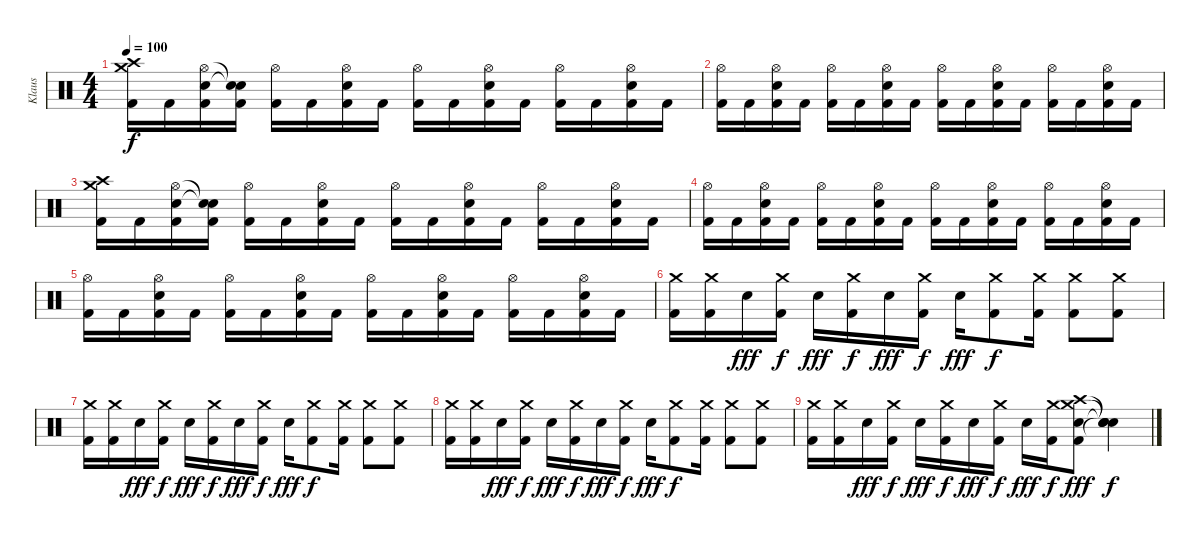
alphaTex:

\track ("Klaus" "Klaus") {instrument percussion}
\staff {score}
\articulation defaults
\ts (4 4)
\tempo 100
\clef neutral
\ks c
("Crash high (hit)" "Crash medium (hit)" "Kick (hit) 2").16{dy f} "Kick (hit) 2".16 ("Hi-Hat (open)" "Electric Snare (hit)" "Kick (hit) 2").16 ("Snare (hit)"{t} "Snare (hit)"{t} "Kick (hit) 2").16 ("Hi-Hat (open)" "Kick (hit) 2").16 "Kick (hit) 2".16 ("Hi-Hat (open)" "Electric Snare (hit)" "Kick (hit) 2").16 "Kick (hit) 2".16 ("Hi-Hat (open)" "Kick (hit) 2").16 "Kick (hit) 2".16 ("Hi-Hat (open)" "Electric Snare (hit)" "Kick (hit) 2").16 "Kick (hit) 2".16 ("Hi-Hat (open)" "Kick (hit) 2").16 "Kick (hit) 2".16 ("Hi-Hat (open)" "Electric Snare (hit)" "Kick (hit) 2").16 "Kick (hit) 2".16 |
("Hi-Hat (open)" "Kick (hit) 2").16 "Kick (hit) 2".16 ("Hi-Hat (open)" "Electric Snare (hit)" "Kick (hit) 2").16 "Kick (hit) 2".16 ("Hi-Hat (open)" "Kick (hit) 2").16 "Kick (hit) 2".16 ("Hi-Hat (open)" "Electric Snare (hit)" "Kick (hit) 2").16 "Kick (hit) 2".16 ("Hi-Hat (open)" "Kick (hit) 2").16 "Kick (hit) 2".16 ("Hi-Hat (open)" "Electric Snare (hit)" "Kick (hit) 2").16 "Kick (hit) 2".16 ("Hi-Hat (open)" "Kick (hit) 2").16 "Kick (hit) 2".16 ("Hi-Hat (open)" "Electric Snare (hit)" "Kick (hit) 2").16 "Kick (hit) 2".16 |
("Crash high (hit)" "Crash medium (hit)" "Kick (hit) 2").16 "Kick (hit) 2".16 ("Hi-Hat (open)" "Electric Snare (hit)" "Kick (hit) 2").16 ("Snare (hit)"{t} "Snare (hit)"{t} "Kick (hit) 2").16 ("Hi-Hat (open)" "Kick (hit) 2").16 "Kick (hit) 2".16 ("Hi-Hat (open)" "Electric Snare (hit)" "Kick (hit) 2").16 "Kick (hit) 2".16 ("Hi-Hat (open)" "Kick (hit) 2").16 "Kick (hit) 2".16 ("Hi-Hat (open)" "Electric Snare (hit)" "Kick (hit) 2").16 "Kick (hit) 2".16 ("Hi-Hat (open)" "Kick (hit) 2").16 "Kick (hit) 2".16 ("Hi-Hat (open)" "Electric Snare (hit)" "Kick (hit) 2").16 "Kick (hit) 2".16 |
("Hi-Hat (open)" "Kick (hit) 2").16 "Kick (hit) 2".16 ("Hi-Hat (open)" "Electric Snare (hit)" "Kick (hit) 2").16 "Kick (hit) 2".16 ("Hi-Hat (open)" "Kick (hit) 2").16 "Kick (hit) 2".16 ("Hi-Hat (open)" "Electric Snare (hit)" "Kick (hit) 2").16 "Kick (hit) 2".16 ("Hi-Hat (open)" "Kick (hit) 2").16 "Kick (hit) 2".16 ("Hi-Hat (open)" "Electric Snare (hit)" "Kick (hit) 2").16 "Kick (hit) 2".16 ("Hi-Hat (open)" "Kick (hit) 2").16 "Kick (hit) 2".16 ("Hi-Hat (open)" "Electric Snare (hit)" "Kick (hit) 2").16 "Kick (hit) 2".16 |
("Hi-Hat (open)" "Kick (hit) 2").16 "Kick (hit) 2".16 ("Hi-Hat (open)" "Electric Snare (hit)" "Kick (hit) 2").16 "Kick (hit) 2".16 ("Hi-Hat (open)" "Kick (hit) 2").16 "Kick (hit) 2".16 ("Hi-Hat (open)" "Electric Snare (hit)" "Kick (hit) 2").16 "Kick (hit) 2".16 ("Hi-Hat (open)" "Kick (hit) 2").16 "Kick (hit) 2".16 ("Hi-Hat (open)" "Electric Snare (hit)" "Kick (hit) 2").16 "Kick (hit) 2".16 ("Hi-Hat (open)" "Kick (hit) 2").16 "Kick (hit) 2".16 ("Hi-Hat (open)" "Electric Snare (hit)" "Kick (hit) 2").16 "Kick (hit) 2".16 |
("Crash medium (hit)" "Kick (hit) 2").16 ("Crash medium (hit)" "Kick (hit) 2").16 "Electric Snare (hit)".16{dy fff} ("Crash medium (hit)" "Kick (hit) 2").16{dy f} "Electric Snare (hit)".16{dy fff} ("Crash medium (hit)" "Kick (hit) 2").16{dy f} "Electric Snare (hit)".16{dy fff} ("Crash medium (hit)" "Kick (hit) 2").16{dy f} "Electric Snare (hit)".16{dy fff} ("Crash medium (hit)" "Kick (hit) 2").8{dy f} ("Crash medium (hit)" "Kick (hit) 2").16 ("Crash medium (hit)" "Kick (hit) 2").8 ("Crash medium (hit)" "Kick (hit) 2").8 |
("Crash medium (hit)" "Kick (hit) 2").16 ("Crash medium (hit)" "Kick (hit) 2").16 "Electric Snare (hit)".16{dy fff} ("Crash medium (hit)" "Kick (hit) 2").16{dy f} "Electric Snare (hit)".16{dy fff} ("Crash medium (hit)" "Kick (hit) 2").16{dy f} "Electric Snare (hit)".16{dy fff} ("Crash medium (hit)" "Kick (hit) 2").16{dy f} "Electric Snare (hit)".16{dy fff} ("Crash medium (hit)" "Kick (hit) 2").8{dy f} ("Crash medium (hit)" "Kick (hit) 2").16 ("Crash medium (hit)" "Kick (hit) 2").8 ("Crash medium (hit)" "Kick (hit) 2").8 |
("Crash medium (hit)" "Kick (hit) 2").16 ("Crash medium (hit)" "Kick (hit) 2").16 "Electric Snare (hit)".16{dy fff} ("Crash medium (hit)" "Kick (hit) 2").16{dy f} "Electric Snare (hit)".16{dy fff} ("Crash medium (hit)" "Kick (hit) 2").16{dy f} "Electric Snare (hit)".16{dy fff} ("Crash medium (hit)" "Kick (hit) 2").16{dy f} "Electric Snare (hit)".16{dy fff} ("Crash medium (hit)" "Kick (hit) 2").8{dy f} ("Crash medium (hit)" "Kick (hit) 2").16 ("Crash medium (hit)" "Kick (hit) 2").8 ("Crash medium (hit)" "Kick (hit) 2").8 |
("Crash medium (hit)" "Kick (hit) 2").16 ("Crash medium (hit)" "Kick (hit) 2").16 "Electric Snare (hit)".16{dy fff} ("Crash medium (hit)" "Kick (hit) 2").16{dy f} "Electric Snare (hit)".16{dy fff} ("Crash medium (hit)" "Kick (hit) 2").16{dy f} "Electric Snare (hit)".16{dy fff} ("Crash medium (hit)" "Kick (hit) 2").16{dy f} "Electric Snare (hit)".16{dy fff} ("Crash medium (hit)" "Kick (hit) 2").16{dy f} ("Crash high (hit)" "Crash medium (hit)" "Electric Snare (hit)" "Kick (hit) 2").8{dy fff} ("Snare (hit)"{t} "Snare (hit)"{t} "Snare (hit)"{t} "Snare (hit)"{t}).4{dy f}
